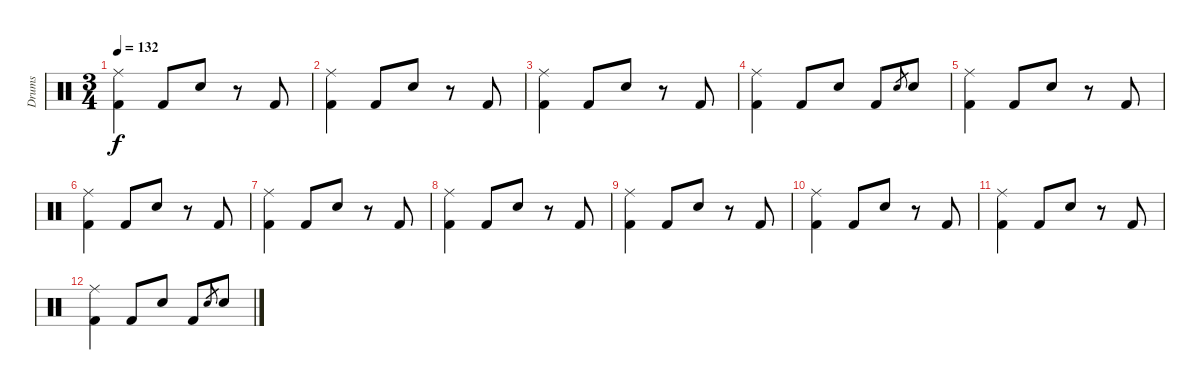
\track ("Drums" "Drums") {instrument percussion}
\staff {score}
\articulation defaults
\ts (3 4)
\tempo 132
\clef neutral
\ks c
("Ride (middle)" "Kick (hit) 2").4{dy f} "Kick (hit) 2".8 "Electric Snare (hit)".8 r.8 "Kick (hit) 2".8 |
("Ride (middle)" "Kick (hit) 2").4 "Kick (hit) 2".8 "Electric Snare (hit)".8 r.8 "Kick (hit) 2".8 |
("Ride (middle)" "Kick (hit) 2").4 "Kick (hit) 2".8 "Electric Snare (hit)".8 r.8 "Kick (hit) 2".8 |
("Ride (middle)" "Kick (hit) 2").4 "Kick (hit) 2".8 "Electric Snare (hit)".8 "Kick (hit) 2".8 "Electric Snare (hit)".8{gr} "Electric Snare (hit)".8 |
("Ride (middle)" "Kick (hit) 2").4 "Kick (hit) 2".8 "Electric Snare (hit)".8 r.8 "Kick (hit) 2".8 |
("Ride (middle)" "Kick (hit) 2").4 "Kick (hit) 2".8 "Electric Snare (hit)".8 r.8 "Kick (hit) 2".8 |
("Ride (middle)" "Kick (hit) 2").4 "Kick (hit) 2".8 "Electric Snare (hit)".8 r.8 "Kick (hit) 2".8 |
("Ride (middle)" "Kick (hit) 2").4 "Kick (hit) 2".8 "Electric Snare (hit)".8 r.8 "Kick (hit) 2".8 |
("Ride (middle)" "Kick (hit) 2").4 "Kick (hit) 2".8 "Electric Snare (hit)".8 r.8 "Kick (hit) 2".8 |
("Ride (middle)" "Kick (hit) 2").4 "Kick (hit) 2".8 "Electric Snare (hit)".8 r.8 "Kick (hit) 2".8 |
("Ride (middle)" "Kick (hit) 2").4 "Kick (hit) 2".8 "Electric Snare (hit)".8 r.8 "Kick (hit) 2".8 |
("Ride (middle)" "Kick (hit) 2").4 "Kick (hit) 2".8 "Electric Snare (hit)".8 "Kick (hit) 2".8 "Electric Snare (hit)".8{gr} "Electric Snare (hit)".8
